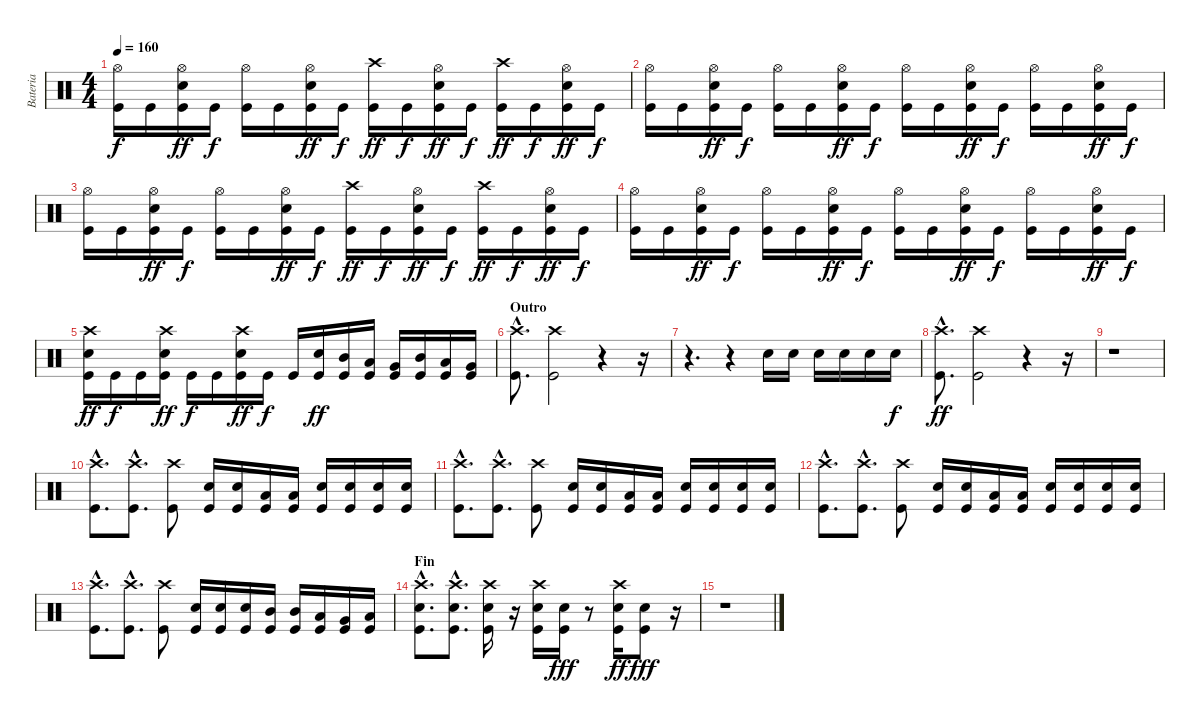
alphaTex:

\track ("Bateria" "Bateria") {instrument percussion}
\staff {score}
\articulation defaults
\ts (4 4)
\tempo 160
\clef neutral
\ks c
("Kick (hit)" "Hi-Hat (open)").16{dy f} "Kick (hit)".16 ("Kick (hit)" "Electric Snare (hit)" "Hi-Hat (open)").16{dy ff} "Kick (hit)".16{dy f} ("Kick (hit)" "Hi-Hat (open)").16 "Kick (hit)".16 ("Kick (hit)" "Electric Snare (hit)" "Hi-Hat (open)").16{dy ff} "Kick (hit)".16{dy f} ("Kick (hit)" "Crash high (hit)").16{dy ff} "Kick (hit)".16{dy f} ("Kick (hit)" "Electric Snare (hit)" "Hi-Hat (open)").16{dy ff} "Kick (hit)".16{dy f} ("Kick (hit)" "Crash high (hit)").16{dy ff} "Kick (hit)".16{dy f} ("Kick (hit)" "Electric Snare (hit)" "Hi-Hat (open)").16{dy ff} "Kick (hit)".16{dy f} |
("Kick (hit)" "Hi-Hat (open)").16 "Kick (hit)".16 ("Kick (hit)" "Electric Snare (hit)" "Hi-Hat (open)").16{dy ff} "Kick (hit)".16{dy f} ("Kick (hit)" "Hi-Hat (open)").16 "Kick (hit)".16 ("Kick (hit)" "Electric Snare (hit)" "Hi-Hat (open)").16{dy ff} "Kick (hit)".16{dy f} ("Kick (hit)" "Hi-Hat (open)").16 "Kick (hit)".16 ("Kick (hit)" "Electric Snare (hit)" "Hi-Hat (open)").16{dy ff} "Kick (hit)".16{dy f} ("Kick (hit)" "Hi-Hat (open)").16 "Kick (hit)".16 ("Kick (hit)" "Electric Snare (hit)" "Hi-Hat (open)").16{dy ff} "Kick (hit)".16{dy f} |
("Kick (hit)" "Hi-Hat (open)").16 "Kick (hit)".16 ("Kick (hit)" "Electric Snare (hit)" "Hi-Hat (open)").16{dy ff} "Kick (hit)".16{dy f} ("Kick (hit)" "Hi-Hat (open)").16 "Kick (hit)".16 ("Kick (hit)" "Electric Snare (hit)" "Hi-Hat (open)").16{dy ff} "Kick (hit)".16{dy f} ("Kick (hit)" "Crash high (hit)").16{dy ff} "Kick (hit)".16{dy f} ("Kick (hit)" "Electric Snare (hit)" "Hi-Hat (open)").16{dy ff} "Kick (hit)".16{dy f} ("Kick (hit)" "Crash high (hit)").16{dy ff} "Kick (hit)".16{dy f} ("Kick (hit)" "Electric Snare (hit)" "Hi-Hat (open)").16{dy ff} "Kick (hit)".16{dy f} |
("Kick (hit)" "Hi-Hat (open)").16 "Kick (hit)".16 ("Kick (hit)" "Electric Snare (hit)" "Hi-Hat (open)").16{dy ff} "Kick (hit)".16{dy f} ("Kick (hit)" "Hi-Hat (open)").16 "Kick (hit)".16 ("Kick (hit)" "Electric Snare (hit)" "Hi-Hat (open)").16{dy ff} "Kick (hit)".16{dy f} ("Kick (hit)" "Hi-Hat (open)").16 "Kick (hit)".16 ("Kick (hit)" "Electric Snare (hit)" "Hi-Hat (open)").16{dy ff} "Kick (hit)".16{dy f} ("Kick (hit)" "Hi-Hat (open)").16 "Kick (hit)".16 ("Kick (hit)" "Electric Snare (hit)" "Hi-Hat (open)").16{dy ff} "Kick (hit)".16{dy f} |
("Kick (hit)" "Electric Snare (hit)" "Crash high (hit)").16{dy ff} "Kick (hit)".16{dy f} "Kick (hit)".16 ("Kick (hit)" "Electric Snare (hit)" "Crash high (hit)").16{dy ff} "Kick (hit)".16{dy f} "Kick (hit)".16 ("Kick (hit)" "Electric Snare (hit)" "Crash high (hit)").16{dy ff} "Kick (hit)".16{dy f} "Kick (hit)".16 ("Kick (hit)" "Electric Snare (hit)").16{dy ff} ("Kick (hit)" "Mid Tom (hit)").16 ("Kick (hit)" "Low Tom (hit)").16 ("Kick (hit)" "Very Low Tom (hit)").16 ("Kick (hit)" "Mid Tom (hit)").16 ("Kick (hit)" "Low Tom (hit)").16 ("Kick (hit)" "Very Low Tom (hit)").16 |
\section ("" "Outro")
("Kick (hit)"{hac} "Crash high (hit)"{hac}).8{d} ("Kick (hit)" "Crash high (hit)").2 r.4 r.16 |
r.4{d} r.4 "Electric Snare (hit)".16 "Electric Snare (hit)".16 "Electric Snare (hit)".16 "Electric Snare (hit)".16 "Electric Snare (hit)".16 "Electric Snare (hit)".16{dy f} |
("Kick (hit)"{hac} "Crash high (hit)"{hac}).8{d dy ff} ("Kick (hit)" "Crash high (hit)").2 r.4 r.16 |
r.1 |
("Kick (hit)"{hac} "Crash high (hit)"{hac}).8{d} ("Kick (hit)"{hac} "Crash high (hit)"{hac}).8{d} ("Kick (hit)" "Crash high (hit)").8 ("Kick (hit)" "Electric Snare (hit)").16 ("Kick (hit)" "Electric Snare (hit)").16 ("Kick (hit)" "Low Tom (hit)").16 ("Kick (hit)" "Low Tom (hit)").16 ("Kick (hit)" "Electric Snare (hit)").16 ("Kick (hit)" "Electric Snare (hit)").16 ("Kick (hit)" "Electric Snare (hit)").16 ("Kick (hit)" "Electric Snare (hit)").16 |
("Kick (hit)"{hac} "Crash high (hit)"{hac}).8{d} ("Kick (hit)"{hac} "Crash high (hit)"{hac}).8{d} ("Kick (hit)" "Crash high (hit)").8 ("Kick (hit)" "Electric Snare (hit)").16 ("Kick (hit)" "Electric Snare (hit)").16 ("Kick (hit)" "Low Tom (hit)").16 ("Kick (hit)" "Low Tom (hit)").16 ("Kick (hit)" "Electric Snare (hit)").16 ("Kick (hit)" "Electric Snare (hit)").16 ("Kick (hit)" "Electric Snare (hit)").16 ("Kick (hit)" "Electric Snare (hit)").16 |
("Kick (hit)"{hac} "Crash high (hit)"{hac}).8{d} ("Kick (hit)"{hac} "Crash high (hit)"{hac}).8{d} ("Kick (hit)" "Crash high (hit)").8 ("Kick (hit)" "Electric Snare (hit)").16 ("Kick (hit)" "Electric Snare (hit)").16 ("Kick (hit)" "Low Tom (hit)").16 ("Kick (hit)" "Low Tom (hit)").16 ("Kick (hit)" "Electric Snare (hit)").16 ("Kick (hit)" "Electric Snare (hit)").16 ("Kick (hit)" "Electric Snare (hit)").16 ("Kick (hit)" "Electric Snare (hit)").16 |
("Kick (hit)"{hac} "Crash high (hit)"{hac}).8{d} ("Kick (hit)"{hac} "Crash high (hit)"{hac}).8{d} ("Kick (hit)" "Crash high (hit)").8 ("Kick (hit)" "Electric Snare (hit)").16 ("Kick (hit)" "Electric Snare (hit)").16 ("Kick (hit)" "Electric Snare (hit)").16 ("Kick (hit)" "Mid Tom (hit)").16 ("Kick (hit)" "Mid Tom (hit)").16 ("Kick (hit)" "Low Tom (hit)").16 ("Kick (hit)" "Very Low Tom (hit)").16 ("Kick (hit)" "Low Floor Tom (hit)").16 |
\section ("" "Fin")
("Electric Snare (hit)"{hac} "Kick (hit)"{hac} "Crash high (hit)"{hac}).8{d} ("Electric Snare (hit)"{hac} "Kick (hit)"{hac} "Crash high (hit)"{hac}).8{d} ("Electric Snare (hit)" "Kick (hit)" "Crash high (hit)").16 r.16 ("Electric Snare (hit)" "Kick (hit)" "Crash high (hit)").16 ("Electric Snare (hit)" "Kick (hit)").16{dy fff} r.8 ("Electric Snare (hit)" "Kick (hit)" "Crash high (hit)").16{dy ff} ("Electric Snare (hit)" "Kick (hit)").8{dy fff} r.16 |
r.1
